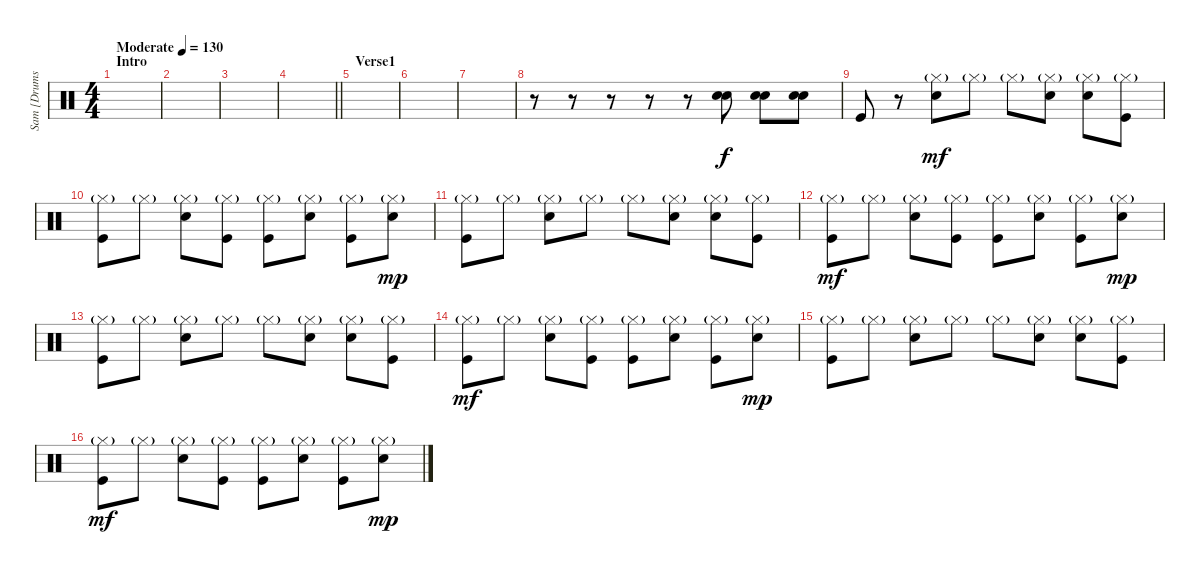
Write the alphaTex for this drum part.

\track ("Sam [Drums]" "Sam [Drums") {instrument percussion}
\staff {score}
\articulation defaults
\ts (4 4)
\section ("" "Intro")
\tempo (130 "Moderate")
\clef neutral
\ks c
|
|
|
\barLineRight lightlight
|
\section ("" "Verse1")
|
|
|
r.8 r.8 r.8 r.8 r.8 ("Snare (hit) 2" "Snare (hit) 2").8 ("Snare (hit) 2" "Snare (hit) 2").8 ("Snare (hit) 2" "Snare (hit) 2").8 |
"Kick (hit)".8 r.8 ("Hi-Hat (closed)"{g} "Snare (hit) 2").8{dy mf} "Hi-Hat (closed)"{g}.8 "Hi-Hat (closed)"{g}.8 ("Hi-Hat (closed)"{g} "Snare (hit) 2").8 ("Hi-Hat (closed)"{g} "Snare (hit) 2").8 ("Hi-Hat (closed)"{g} "Kick (hit)").8 |
("Hi-Hat (closed)"{g} "Kick (hit)").8 "Hi-Hat (closed)"{g}.8 ("Hi-Hat (closed)"{g} "Snare (hit) 2").8 ("Hi-Hat (closed)"{g} "Kick (hit)").8 ("Hi-Hat (closed)"{g} "Kick (hit)").8 ("Hi-Hat (closed)"{g} "Snare (hit) 2").8 ("Hi-Hat (closed)"{g} "Kick (hit)").8 ("Hi-Hat (closed)"{g} "Snare (hit) 2").8{dy mp} |
("Hi-Hat (closed)"{g} "Kick (hit)").8 "Hi-Hat (closed)"{g}.8 ("Hi-Hat (closed)"{g} "Snare (hit) 2").8 "Hi-Hat (closed)"{g}.8 "Hi-Hat (closed)"{g}.8 ("Hi-Hat (closed)"{g} "Snare (hit) 2").8 ("Hi-Hat (closed)"{g} "Snare (hit) 2").8 ("Hi-Hat (closed)"{g} "Kick (hit)").8 |
("Hi-Hat (closed)"{g} "Kick (hit)").8{dy mf} "Hi-Hat (closed)"{g}.8 ("Hi-Hat (closed)"{g} "Snare (hit) 2").8 ("Hi-Hat (closed)"{g} "Kick (hit)").8 ("Hi-Hat (closed)"{g} "Kick (hit)").8 ("Hi-Hat (closed)"{g} "Snare (hit) 2").8 ("Hi-Hat (closed)"{g} "Kick (hit)").8 ("Hi-Hat (closed)"{g} "Snare (hit) 2").8{dy mp} |
("Hi-Hat (closed)"{g} "Kick (hit)").8 "Hi-Hat (closed)"{g}.8 ("Hi-Hat (closed)"{g} "Snare (hit) 2").8 "Hi-Hat (closed)"{g}.8 "Hi-Hat (closed)"{g}.8 ("Hi-Hat (closed)"{g} "Snare (hit) 2").8 ("Hi-Hat (closed)"{g} "Snare (hit) 2").8 ("Hi-Hat (closed)"{g} "Kick (hit)").8 |
("Hi-Hat (closed)"{g} "Kick (hit)").8{dy mf} "Hi-Hat (closed)"{g}.8 ("Hi-Hat (closed)"{g} "Snare (hit) 2").8 ("Hi-Hat (closed)"{g} "Kick (hit)").8 ("Hi-Hat (closed)"{g} "Kick (hit)").8 ("Hi-Hat (closed)"{g} "Snare (hit) 2").8 ("Hi-Hat (closed)"{g} "Kick (hit)").8 ("Hi-Hat (closed)"{g} "Snare (hit) 2").8{dy mp} |
("Hi-Hat (closed)"{g} "Kick (hit)").8 "Hi-Hat (closed)"{g}.8 ("Hi-Hat (closed)"{g} "Snare (hit) 2").8 "Hi-Hat (closed)"{g}.8 "Hi-Hat (closed)"{g}.8 ("Hi-Hat (closed)"{g} "Snare (hit) 2").8 ("Hi-Hat (closed)"{g} "Snare (hit) 2").8 ("Hi-Hat (closed)"{g} "Kick (hit)").8 |
("Hi-Hat (closed)"{g} "Kick (hit)").8{dy mf} "Hi-Hat (closed)"{g}.8 ("Hi-Hat (closed)"{g} "Snare (hit) 2").8 ("Hi-Hat (closed)"{g} "Kick (hit)").8 ("Hi-Hat (closed)"{g} "Kick (hit)").8 ("Hi-Hat (closed)"{g} "Snare (hit) 2").8 ("Hi-Hat (closed)"{g} "Kick (hit)").8 ("Hi-Hat (closed)"{g} "Snare (hit) 2").8{dy mp}
